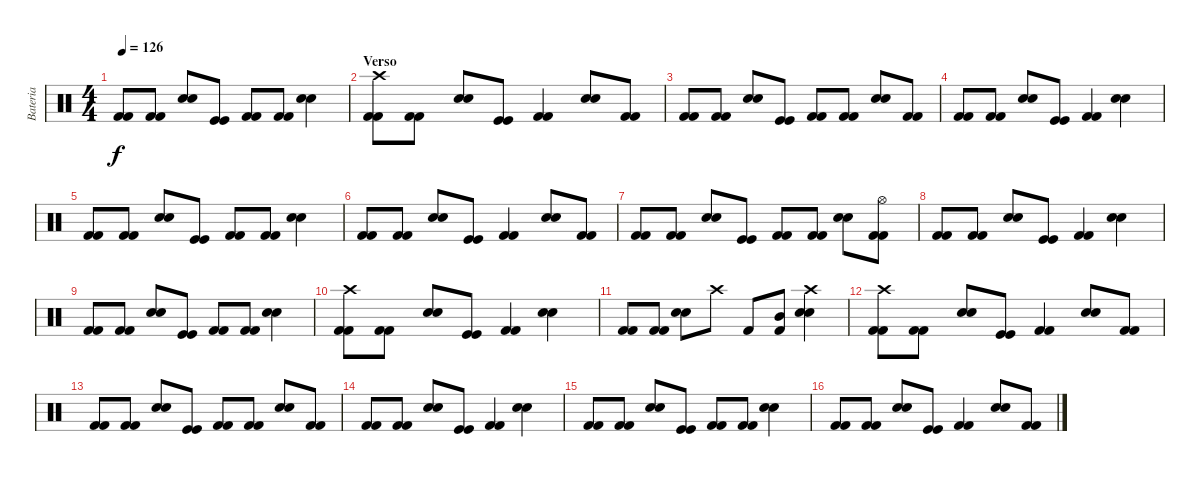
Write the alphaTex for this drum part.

\track ("Bateria" "Bateria") {instrument percussion}
\staff {score}
\articulation defaults
\ts (4 4)
\tempo 126
\clef neutral
\ks c
("Kick (hit) 2" "Kick (hit) 2").8{dy f} ("Kick (hit) 2" "Kick (hit) 2").8 ("Electric Snare (hit)" "Snare (hit) 2").8 ("Kick (hit)" "Kick (hit)").8 ("Kick (hit) 2" "Kick (hit) 2").8 ("Kick (hit) 2" "Kick (hit) 2").8 ("Electric Snare (hit)" "Snare (hit) 2").4 |
\section ("" "Verso")
("Crash high (hit)" "Kick (hit) 2" "Kick (hit) 2").8 ("Kick (hit) 2" "Kick (hit) 2").8 ("Electric Snare (hit)" "Snare (hit) 2").8 ("Kick (hit)" "Kick (hit)").8 ("Kick (hit) 2" "Kick (hit) 2").4 ("Electric Snare (hit)" "Snare (hit) 2").8 ("Kick (hit) 2" "Kick (hit) 2").8 |
("Kick (hit) 2" "Kick (hit) 2").8 ("Kick (hit) 2" "Kick (hit) 2").8 ("Electric Snare (hit)" "Snare (hit) 2").8 ("Kick (hit)" "Kick (hit)").8 ("Kick (hit) 2" "Kick (hit) 2").8 ("Kick (hit) 2" "Kick (hit) 2").8 ("Electric Snare (hit)" "Snare (hit) 2").8 ("Kick (hit) 2" "Kick (hit) 2").8 |
("Kick (hit) 2" "Kick (hit) 2").8 ("Kick (hit) 2" "Kick (hit) 2").8 ("Electric Snare (hit)" "Snare (hit) 2").8 ("Kick (hit)" "Kick (hit)").8 ("Kick (hit) 2" "Kick (hit) 2").4 ("Electric Snare (hit)" "Snare (hit) 2").4 |
("Kick (hit) 2" "Kick (hit) 2").8 ("Kick (hit) 2" "Kick (hit) 2").8 ("Electric Snare (hit)" "Snare (hit) 2").8 ("Kick (hit)" "Kick (hit)").8 ("Kick (hit) 2" "Kick (hit) 2").8 ("Kick (hit) 2" "Kick (hit) 2").8 ("Electric Snare (hit)" "Snare (hit) 2").4 |
("Kick (hit) 2" "Kick (hit) 2").8 ("Kick (hit) 2" "Kick (hit) 2").8 ("Electric Snare (hit)" "Snare (hit) 2").8 ("Kick (hit)" "Kick (hit)").8 ("Kick (hit) 2" "Kick (hit) 2").4 ("Electric Snare (hit)" "Snare (hit) 2").8 ("Kick (hit) 2" "Kick (hit) 2").8 |
("Kick (hit) 2" "Kick (hit) 2").8 ("Kick (hit) 2" "Kick (hit) 2").8 ("Electric Snare (hit)" "Snare (hit) 2").8 ("Kick (hit)" "Kick (hit)").8 ("Kick (hit) 2" "Kick (hit) 2").8 ("Kick (hit) 2" "Kick (hit) 2").8 ("Electric Snare (hit)" "Snare (hit) 2").8 ("Hi-Hat (open)" "Kick (hit) 2" "Kick (hit) 2").8 |
("Kick (hit) 2" "Kick (hit) 2").8 ("Kick (hit) 2" "Kick (hit) 2").8 ("Electric Snare (hit)" "Snare (hit) 2").8 ("Kick (hit)" "Kick (hit)").8 ("Kick (hit) 2" "Kick (hit) 2").4 ("Electric Snare (hit)" "Snare (hit) 2").4 |
("Kick (hit) 2" "Kick (hit) 2").8 ("Kick (hit) 2" "Kick (hit) 2").8 ("Electric Snare (hit)" "Snare (hit) 2").8 ("Kick (hit)" "Kick (hit)").8 ("Kick (hit) 2" "Kick (hit) 2").8 ("Kick (hit) 2" "Kick (hit) 2").8 ("Electric Snare (hit)" "Snare (hit) 2").4 |
("Crash high (hit)" "Kick (hit) 2" "Kick (hit) 2").8 ("Kick (hit) 2" "Kick (hit) 2").8 ("Electric Snare (hit)" "Snare (hit) 2").8 ("Kick (hit)" "Kick (hit)").8 ("Kick (hit) 2" "Kick (hit) 2").4 ("Electric Snare (hit)" "Snare (hit) 2").4 |
("Kick (hit) 2" "Kick (hit) 2").8 ("Kick (hit) 2" "Kick (hit) 2").8 ("Electric Snare (hit)" "Snare (hit) 2").8 "Crash high (hit)".8 "Kick (hit) 2".8 ("Mid Tom (hit)" "Kick (hit) 2").8 ("Crash high (hit)" "Electric Snare (hit)" "Snare (hit) 2").4 |
("Crash high (hit)" "Kick (hit) 2" "Kick (hit) 2").8 ("Kick (hit) 2" "Kick (hit) 2").8 ("Electric Snare (hit)" "Snare (hit) 2").8 ("Kick (hit)" "Kick (hit)").8 ("Kick (hit) 2" "Kick (hit) 2").4 ("Electric Snare (hit)" "Snare (hit) 2").8 ("Kick (hit) 2" "Kick (hit) 2").8 |
("Kick (hit) 2" "Kick (hit) 2").8 ("Kick (hit) 2" "Kick (hit) 2").8 ("Electric Snare (hit)" "Snare (hit) 2").8 ("Kick (hit)" "Kick (hit)").8 ("Kick (hit) 2" "Kick (hit) 2").8 ("Kick (hit) 2" "Kick (hit) 2").8 ("Electric Snare (hit)" "Snare (hit) 2").8 ("Kick (hit) 2" "Kick (hit) 2").8 |
("Kick (hit) 2" "Kick (hit) 2").8 ("Kick (hit) 2" "Kick (hit) 2").8 ("Electric Snare (hit)" "Snare (hit) 2").8 ("Kick (hit)" "Kick (hit)").8 ("Kick (hit) 2" "Kick (hit) 2").4 ("Electric Snare (hit)" "Snare (hit) 2").4 |
("Kick (hit) 2" "Kick (hit) 2").8 ("Kick (hit) 2" "Kick (hit) 2").8 ("Electric Snare (hit)" "Snare (hit) 2").8 ("Kick (hit)" "Kick (hit)").8 ("Kick (hit) 2" "Kick (hit) 2").8 ("Kick (hit) 2" "Kick (hit) 2").8 ("Electric Snare (hit)" "Snare (hit) 2").4 |
("Kick (hit) 2" "Kick (hit) 2").8 ("Kick (hit) 2" "Kick (hit) 2").8 ("Electric Snare (hit)" "Snare (hit) 2").8 ("Kick (hit)" "Kick (hit)").8 ("Kick (hit) 2" "Kick (hit) 2").4 ("Electric Snare (hit)" "Snare (hit) 2").8 ("Kick (hit) 2" "Kick (hit) 2").8
